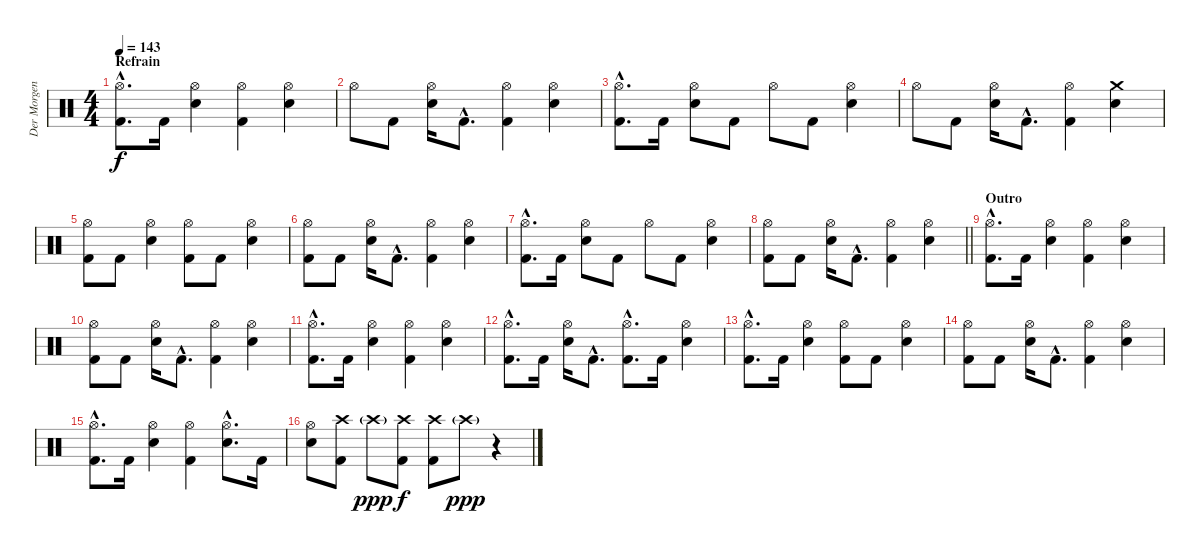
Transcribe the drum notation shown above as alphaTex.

\track ("Der Morgenstern" "Der Morgen") {instrument percussion}
\staff {score}
\articulation defaults
\ts (4 4)
\section ("" "Refrain")
\tempo 143
\clef neutral
\ks c
("Hi-Hat (open)"{hac} "Kick (hit) 2"{hac}).8{d dy f} "Kick (hit) 2".16 ("Hi-Hat (open)" "Electric Snare (hit)").4 ("Hi-Hat (open)" "Kick (hit) 2").4 ("Hi-Hat (open)" "Electric Snare (hit)").4 |
"Hi-Hat (open)".8 "Kick (hit) 2".8 ("Hi-Hat (open)" "Electric Snare (hit)").16 "Kick (hit) 2"{hac}.8{d} ("Hi-Hat (open)" "Kick (hit) 2").4 ("Hi-Hat (open)" "Electric Snare (hit)").4 |
("Hi-Hat (open)"{hac} "Kick (hit) 2"{hac}).8{d} "Kick (hit) 2".16 ("Hi-Hat (open)" "Electric Snare (hit)").8 "Kick (hit) 2".8 "Hi-Hat (open)".8 "Kick (hit) 2".8 ("Hi-Hat (open)" "Electric Snare (hit)").4 |
"Hi-Hat (open)".8 "Kick (hit) 2".8 ("Hi-Hat (open)" "Electric Snare (hit)").16 "Kick (hit) 2"{hac}.8{d} ("Hi-Hat (open)" "Kick (hit) 2").4 ("Crash medium (hit)" "Electric Snare (hit)").4 |
("Hi-Hat (open)" "Kick (hit) 2").8 "Kick (hit) 2".8 ("Hi-Hat (open)" "Electric Snare (hit)").4 ("Hi-Hat (open)" "Kick (hit) 2").8 "Kick (hit) 2".8 ("Hi-Hat (open)" "Electric Snare (hit)").4 |
("Hi-Hat (open)" "Kick (hit) 2").8 "Kick (hit) 2".8 ("Hi-Hat (open)" "Electric Snare (hit)").16 "Kick (hit) 2"{hac}.8{d} ("Hi-Hat (open)" "Kick (hit) 2").4 ("Hi-Hat (open)" "Electric Snare (hit)").4 |
("Hi-Hat (open)"{hac} "Kick (hit) 2"{hac}).8{d} "Kick (hit) 2".16 ("Hi-Hat (open)" "Electric Snare (hit)").8 "Kick (hit) 2".8 "Hi-Hat (open)".8 "Kick (hit) 2".8 ("Hi-Hat (open)" "Electric Snare (hit)").4 |
\barLineRight lightlight
("Hi-Hat (open)" "Kick (hit) 2").8 "Kick (hit) 2".8 ("Hi-Hat (open)" "Electric Snare (hit)").16 "Kick (hit) 2"{hac}.8{d} ("Hi-Hat (open)" "Kick (hit) 2").4 ("Hi-Hat (open)" "Electric Snare (hit)").4 |
\section ("" "Outro")
("Hi-Hat (open)"{hac} "Kick (hit) 2"{hac}).8{d} "Kick (hit) 2".16 ("Hi-Hat (open)" "Electric Snare (hit)").4 ("Hi-Hat (open)" "Kick (hit) 2").4 ("Hi-Hat (open)" "Electric Snare (hit)").4 |
("Hi-Hat (open)" "Kick (hit) 2").8 "Kick (hit) 2".8 ("Hi-Hat (open)" "Electric Snare (hit)").16 "Kick (hit) 2"{hac}.8{d} ("Hi-Hat (open)" "Kick (hit) 2").4 ("Hi-Hat (open)" "Electric Snare (hit)").4 |
("Hi-Hat (open)"{hac} "Kick (hit) 2"{hac}).8{d} "Kick (hit) 2".16 ("Hi-Hat (open)" "Electric Snare (hit)").4 ("Hi-Hat (open)" "Kick (hit) 2").4 ("Hi-Hat (open)" "Electric Snare (hit)").4 |
("Hi-Hat (open)"{hac} "Kick (hit) 2"{hac}).8{d} "Kick (hit) 2".16 ("Hi-Hat (open)" "Electric Snare (hit)").16 "Kick (hit) 2"{hac}.8{d} ("Hi-Hat (open)"{hac} "Kick (hit) 2"{hac}).8{d} "Kick (hit) 2".16 ("Hi-Hat (open)" "Electric Snare (hit)").4 |
("Hi-Hat (open)"{hac} "Kick (hit) 2"{hac}).8{d} "Kick (hit) 2".16 ("Hi-Hat (open)" "Electric Snare (hit)").4 ("Hi-Hat (open)" "Kick (hit) 2").8 "Kick (hit) 2".8 ("Hi-Hat (open)" "Electric Snare (hit)").4 |
("Hi-Hat (open)" "Kick (hit) 2").8 "Kick (hit) 2".8 ("Hi-Hat (open)" "Electric Snare (hit)").16 "Kick (hit) 2"{hac}.8{d} ("Hi-Hat (open)" "Kick (hit) 2").4 ("Hi-Hat (open)" "Electric Snare (hit)").4 |
("Hi-Hat (open)"{hac} "Kick (hit) 2"{hac}).8{d} "Kick (hit) 2".16 ("Hi-Hat (open)" "Electric Snare (hit)").4 ("Hi-Hat (open)" "Kick (hit) 2").4 ("Hi-Hat (open)"{hac} "Electric Snare (hit)"{hac}).8{d} "Kick (hit) 2".16 |
("Hi-Hat (open)" "Electric Snare (hit)").8 ("Crash high (hit)" "Kick (hit) 2").8 "Crash high (hit)"{g}.8{dy ppp} ("Crash high (hit)" "Kick (hit) 2").8{dy f} ("Crash high (hit)" "Kick (hit) 2").8 "Crash high (hit)"{g}.8{dy ppp} r.4
